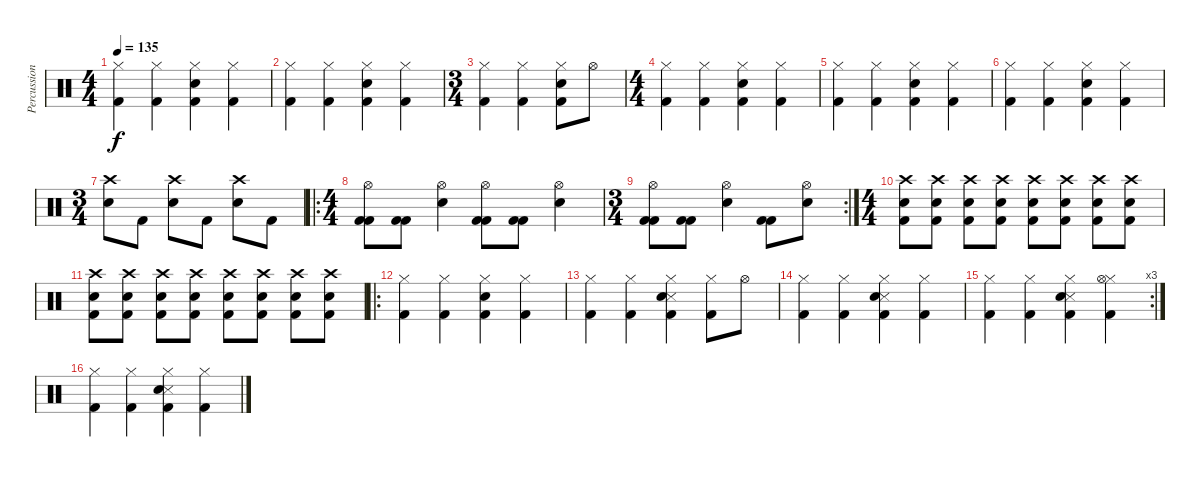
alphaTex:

\track ("Percussions" "Percussion") {instrument percussion}
\staff {score}
\articulation defaults
\ts (4 4)
\tempo 135
\clef neutral
\ks c
("Hi-Hat (closed)" "Kick (hit) 2").4{dy f} ("Hi-Hat (closed)" "Kick (hit) 2").4 ("Hi-Hat (closed)" "Electric Snare (hit)" "Kick (hit) 2").4 ("Hi-Hat (closed)" "Kick (hit) 2").4 |
("Hi-Hat (closed)" "Kick (hit) 2").4 ("Hi-Hat (closed)" "Kick (hit) 2").4 ("Hi-Hat (closed)" "Electric Snare (hit)" "Kick (hit) 2").4 ("Hi-Hat (closed)" "Kick (hit) 2").4 |
\ts (3 4)
("Hi-Hat (closed)" "Kick (hit) 2").4 ("Hi-Hat (closed)" "Kick (hit) 2").4 ("Hi-Hat (closed)" "Electric Snare (hit)" "Kick (hit) 2").8 "Hi-Hat (open)".8 |
\ts (4 4)
("Hi-Hat (closed)" "Kick (hit) 2").4 ("Hi-Hat (closed)" "Kick (hit) 2").4 ("Hi-Hat (closed)" "Electric Snare (hit)" "Kick (hit) 2").4 ("Hi-Hat (closed)" "Kick (hit) 2").4 |
("Hi-Hat (closed)" "Kick (hit) 2").4 ("Hi-Hat (closed)" "Kick (hit) 2").4 ("Hi-Hat (closed)" "Electric Snare (hit)" "Kick (hit) 2").4 ("Hi-Hat (closed)" "Kick (hit) 2").4 |
("Hi-Hat (closed)" "Kick (hit) 2").4 ("Hi-Hat (closed)" "Kick (hit) 2").4 ("Hi-Hat (closed)" "Electric Snare (hit)" "Kick (hit) 2").4 ("Hi-Hat (closed)" "Kick (hit) 2").4 |
\ts (3 4)
("Crash high (hit)" "Electric Snare (hit)").8 "Kick (hit) 2".8 ("Crash high (hit)" "Electric Snare (hit)").8 "Kick (hit) 2".8 ("Crash high (hit)" "Electric Snare (hit)").8 "Kick (hit) 2".8 |
\ro
\ts (4 4)
("Hi-Hat (open)" "Kick (hit) 2" "Kick (hit) 2").8 ("Kick (hit) 2" "Kick (hit) 2").8 ("Hi-Hat (open)" "Electric Snare (hit)").4 ("Hi-Hat (open)" "Kick (hit) 2" "Kick (hit) 2").8 ("Kick (hit) 2" "Kick (hit) 2").8 ("Hi-Hat (open)" "Electric Snare (hit)").4 |
\rc 2
\ts (3 4)
("Hi-Hat (open)" "Kick (hit) 2" "Kick (hit) 2").8 ("Kick (hit) 2" "Kick (hit) 2").8 ("Hi-Hat (open)" "Electric Snare (hit)").4 ("Kick (hit) 2" "Kick (hit) 2").8 ("Hi-Hat (open)" "Electric Snare (hit)").8 |
\ts (4 4)
("Crash high (hit)" "Electric Snare (hit)" "Kick (hit) 2").8{volume 2} ("Crash high (hit)" "Electric Snare (hit)" "Kick (hit) 2").8 ("Crash high (hit)" "Electric Snare (hit)" "Kick (hit) 2").8{volume 13} ("Crash high (hit)" "Electric Snare (hit)" "Kick (hit) 2").8 ("Crash high (hit)" "Electric Snare (hit)" "Kick (hit) 2").8 ("Crash high (hit)" "Electric Snare (hit)" "Kick (hit) 2").8 ("Crash high (hit)" "Electric Snare (hit)" "Kick (hit) 2").8 ("Crash high (hit)" "Electric Snare (hit)" "Kick (hit) 2").8 |
("Crash high (hit)" "Electric Snare (hit)" "Kick (hit) 2").8 ("Crash high (hit)" "Electric Snare (hit)" "Kick (hit) 2").8 ("Crash high (hit)" "Electric Snare (hit)" "Kick (hit) 2").8 ("Crash high (hit)" "Electric Snare (hit)" "Kick (hit) 2").8 ("Crash high (hit)" "Electric Snare (hit)" "Kick (hit) 2").8 ("Crash high (hit)" "Electric Snare (hit)" "Kick (hit) 2").8 ("Crash high (hit)" "Electric Snare (hit)" "Kick (hit) 2").8 ("Crash high (hit)" "Electric Snare (hit)" "Kick (hit) 2").8 |
\ro
("Hi-Hat (closed)" "Kick (hit) 2").4 ("Hi-Hat (closed)" "Kick (hit) 2").4 ("Hi-Hat (closed)" "Electric Snare (hit)" "Kick (hit) 2").4 ("Hi-Hat (closed)" "Kick (hit) 2").4 |
("Hi-Hat (closed)" "Kick (hit) 2").4 ("Hi-Hat (closed)" "Kick (hit) 2").4 ("Hi-Hat (closed)" "Snare (side stick) 3" "Electric Snare (hit)" "Kick (hit) 2").4 ("Hi-Hat (closed)" "Kick (hit) 2").8 "Hi-Hat (open)".8 |
("Hi-Hat (closed)" "Kick (hit) 2").4 ("Hi-Hat (closed)" "Kick (hit) 2").4 ("Hi-Hat (closed)" "Snare (side stick) 3" "Electric Snare (hit)" "Kick (hit) 2").4 ("Hi-Hat (closed)" "Kick (hit) 2").4 |
\rc 3
("Hi-Hat (closed)" "Kick (hit) 2").4 ("Hi-Hat (closed)" "Kick (hit) 2").4 ("Hi-Hat (closed)" "Snare (side stick) 3" "Electric Snare (hit)" "Kick (hit) 2").4 ("Hi-Hat (closed)" "Hi-Hat (open)" "Kick (hit) 2").4 |
("Hi-Hat (closed)" "Kick (hit) 2").4 ("Hi-Hat (closed)" "Kick (hit) 2").4 ("Hi-Hat (closed)" "Snare (side stick) 3" "Electric Snare (hit)" "Kick (hit) 2").4 ("Hi-Hat (closed)" "Kick (hit) 2").4
